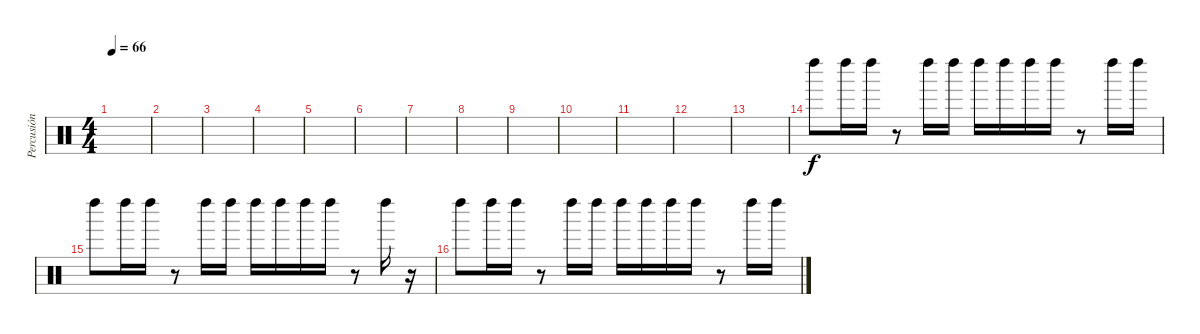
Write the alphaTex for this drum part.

\track ("Percusión" "Percusión") {instrument percussion}
\staff {score}
\articulation defaults
\ts (4 4)
\tempo 66
\clef neutral
\ks c
|
|
|
|
|
|
|
|
|
|
|
|
|
"Left Maraca (hit)".8 "Left Maraca (hit)".16 "Left Maraca (hit)".16 r.8 "Left Maraca (hit)".16 "Left Maraca (hit)".16 "Left Maraca (hit)".16 "Left Maraca (hit)".16 "Left Maraca (hit)".16 "Left Maraca (hit)".16 r.8 "Left Maraca (hit)".16 "Left Maraca (hit)".16 |
"Left Maraca (hit)".8 "Left Maraca (hit)".16 "Left Maraca (hit)".16 r.8 "Left Maraca (hit)".16 "Left Maraca (hit)".16 "Left Maraca (hit)".16 "Left Maraca (hit)".16 "Left Maraca (hit)".16 "Left Maraca (hit)".16 r.8 "Left Maraca (hit)".16 r.16 |
"Left Maraca (hit)".8 "Left Maraca (hit)".16 "Left Maraca (hit)".16 r.8 "Left Maraca (hit)".16 "Left Maraca (hit)".16 "Left Maraca (hit)".16 "Left Maraca (hit)".16 "Left Maraca (hit)".16 "Left Maraca (hit)".16 r.8 "Left Maraca (hit)".16 "Left Maraca (hit)".16
